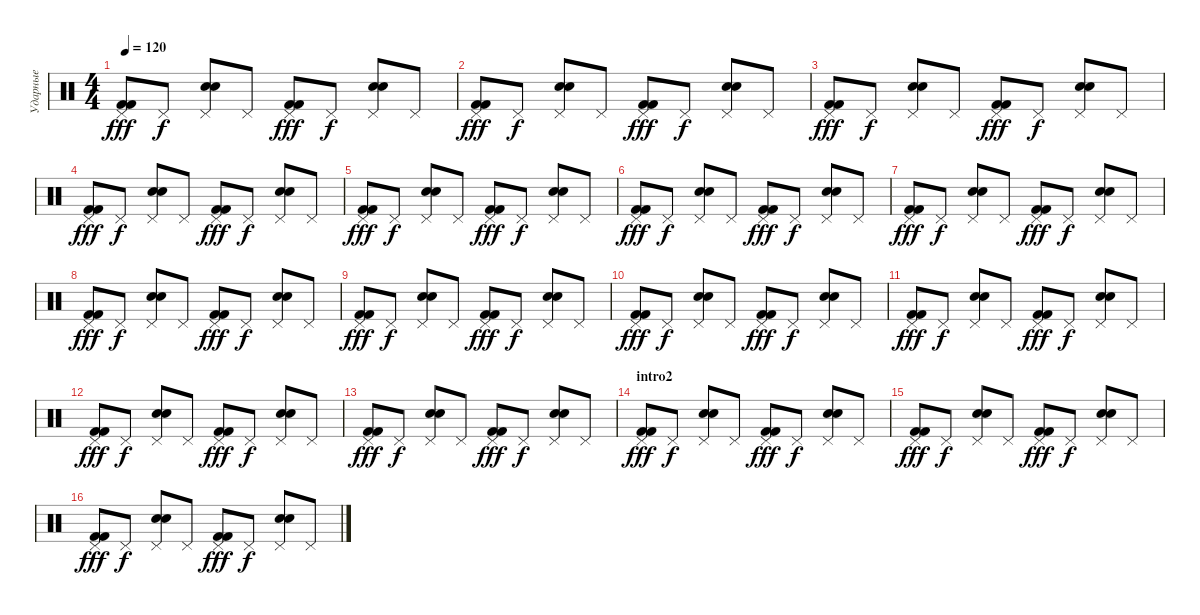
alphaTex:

\track ("Ударные" "Ударные") {instrument percussion}
\staff {score}
\articulation defaults
\ts (4 4)
\tempo 120
\clef neutral
\ks c
("Kick (hit) 2" "Kick (hit) 2" "Pedal Hi-Hat (hit)").8{dy fff} "Pedal Hi-Hat (hit)".8{dy f} ("Electric Snare (hit)" "Electric Snare (hit)" "Pedal Hi-Hat (hit)").8 "Pedal Hi-Hat (hit)".8 ("Kick (hit) 2" "Kick (hit) 2" "Pedal Hi-Hat (hit)").8{dy fff} "Pedal Hi-Hat (hit)".8{dy f} ("Electric Snare (hit)" "Electric Snare (hit)" "Pedal Hi-Hat (hit)").8 "Pedal Hi-Hat (hit)".8 |
("Kick (hit) 2" "Kick (hit) 2" "Pedal Hi-Hat (hit)").8{dy fff} "Pedal Hi-Hat (hit)".8{dy f} ("Electric Snare (hit)" "Electric Snare (hit)" "Pedal Hi-Hat (hit)").8 "Pedal Hi-Hat (hit)".8 ("Kick (hit) 2" "Kick (hit) 2" "Pedal Hi-Hat (hit)").8{dy fff} "Pedal Hi-Hat (hit)".8{dy f} ("Electric Snare (hit)" "Electric Snare (hit)" "Pedal Hi-Hat (hit)").8 "Pedal Hi-Hat (hit)".8 |
("Kick (hit) 2" "Kick (hit) 2" "Pedal Hi-Hat (hit)").8{dy fff} "Pedal Hi-Hat (hit)".8{dy f} ("Electric Snare (hit)" "Electric Snare (hit)" "Pedal Hi-Hat (hit)").8 "Pedal Hi-Hat (hit)".8 ("Kick (hit) 2" "Kick (hit) 2" "Pedal Hi-Hat (hit)").8{dy fff} "Pedal Hi-Hat (hit)".8{dy f} ("Electric Snare (hit)" "Electric Snare (hit)" "Pedal Hi-Hat (hit)").8 "Pedal Hi-Hat (hit)".8 |
("Kick (hit) 2" "Kick (hit) 2" "Pedal Hi-Hat (hit)").8{dy fff} "Pedal Hi-Hat (hit)".8{dy f} ("Electric Snare (hit)" "Electric Snare (hit)" "Pedal Hi-Hat (hit)").8 "Pedal Hi-Hat (hit)".8 ("Kick (hit) 2" "Kick (hit) 2" "Pedal Hi-Hat (hit)").8{dy fff} "Pedal Hi-Hat (hit)".8{dy f} ("Electric Snare (hit)" "Electric Snare (hit)" "Pedal Hi-Hat (hit)").8 "Pedal Hi-Hat (hit)".8 |
("Kick (hit) 2" "Kick (hit) 2" "Pedal Hi-Hat (hit)").8{dy fff} "Pedal Hi-Hat (hit)".8{dy f} ("Electric Snare (hit)" "Electric Snare (hit)" "Pedal Hi-Hat (hit)").8 "Pedal Hi-Hat (hit)".8 ("Kick (hit) 2" "Kick (hit) 2" "Pedal Hi-Hat (hit)").8{dy fff} "Pedal Hi-Hat (hit)".8{dy f} ("Electric Snare (hit)" "Electric Snare (hit)" "Pedal Hi-Hat (hit)").8 "Pedal Hi-Hat (hit)".8 |
("Kick (hit) 2" "Kick (hit) 2" "Pedal Hi-Hat (hit)").8{dy fff} "Pedal Hi-Hat (hit)".8{dy f} ("Electric Snare (hit)" "Electric Snare (hit)" "Pedal Hi-Hat (hit)").8 "Pedal Hi-Hat (hit)".8 ("Kick (hit) 2" "Kick (hit) 2" "Pedal Hi-Hat (hit)").8{dy fff} "Pedal Hi-Hat (hit)".8{dy f} ("Electric Snare (hit)" "Electric Snare (hit)" "Pedal Hi-Hat (hit)").8 "Pedal Hi-Hat (hit)".8 |
("Kick (hit) 2" "Kick (hit) 2" "Pedal Hi-Hat (hit)").8{dy fff} "Pedal Hi-Hat (hit)".8{dy f} ("Electric Snare (hit)" "Electric Snare (hit)" "Pedal Hi-Hat (hit)").8 "Pedal Hi-Hat (hit)".8 ("Kick (hit) 2" "Kick (hit) 2" "Pedal Hi-Hat (hit)").8{dy fff} "Pedal Hi-Hat (hit)".8{dy f} ("Electric Snare (hit)" "Electric Snare (hit)" "Pedal Hi-Hat (hit)").8 "Pedal Hi-Hat (hit)".8 |
("Kick (hit) 2" "Kick (hit) 2" "Pedal Hi-Hat (hit)").8{dy fff} "Pedal Hi-Hat (hit)".8{dy f} ("Electric Snare (hit)" "Electric Snare (hit)" "Pedal Hi-Hat (hit)").8 "Pedal Hi-Hat (hit)".8 ("Kick (hit) 2" "Kick (hit) 2" "Pedal Hi-Hat (hit)").8{dy fff} "Pedal Hi-Hat (hit)".8{dy f} ("Electric Snare (hit)" "Electric Snare (hit)" "Pedal Hi-Hat (hit)").8 "Pedal Hi-Hat (hit)".8 |
("Kick (hit) 2" "Kick (hit) 2" "Pedal Hi-Hat (hit)").8{dy fff} "Pedal Hi-Hat (hit)".8{dy f} ("Electric Snare (hit)" "Electric Snare (hit)" "Pedal Hi-Hat (hit)").8 "Pedal Hi-Hat (hit)".8 ("Kick (hit) 2" "Kick (hit) 2" "Pedal Hi-Hat (hit)").8{dy fff} "Pedal Hi-Hat (hit)".8{dy f} ("Electric Snare (hit)" "Electric Snare (hit)" "Pedal Hi-Hat (hit)").8 "Pedal Hi-Hat (hit)".8 |
("Kick (hit) 2" "Kick (hit) 2" "Pedal Hi-Hat (hit)").8{dy fff} "Pedal Hi-Hat (hit)".8{dy f} ("Electric Snare (hit)" "Electric Snare (hit)" "Pedal Hi-Hat (hit)").8 "Pedal Hi-Hat (hit)".8 ("Kick (hit) 2" "Kick (hit) 2" "Pedal Hi-Hat (hit)").8{dy fff} "Pedal Hi-Hat (hit)".8{dy f} ("Electric Snare (hit)" "Electric Snare (hit)" "Pedal Hi-Hat (hit)").8 "Pedal Hi-Hat (hit)".8 |
("Kick (hit) 2" "Kick (hit) 2" "Pedal Hi-Hat (hit)").8{dy fff} "Pedal Hi-Hat (hit)".8{dy f} ("Electric Snare (hit)" "Electric Snare (hit)" "Pedal Hi-Hat (hit)").8 "Pedal Hi-Hat (hit)".8 ("Kick (hit) 2" "Kick (hit) 2" "Pedal Hi-Hat (hit)").8{dy fff} "Pedal Hi-Hat (hit)".8{dy f} ("Electric Snare (hit)" "Electric Snare (hit)" "Pedal Hi-Hat (hit)").8 "Pedal Hi-Hat (hit)".8 |
("Kick (hit) 2" "Kick (hit) 2" "Pedal Hi-Hat (hit)").8{dy fff} "Pedal Hi-Hat (hit)".8{dy f} ("Electric Snare (hit)" "Electric Snare (hit)" "Pedal Hi-Hat (hit)").8 "Pedal Hi-Hat (hit)".8 ("Kick (hit) 2" "Kick (hit) 2" "Pedal Hi-Hat (hit)").8{dy fff} "Pedal Hi-Hat (hit)".8{dy f} ("Electric Snare (hit)" "Electric Snare (hit)" "Pedal Hi-Hat (hit)").8 "Pedal Hi-Hat (hit)".8 |
("Kick (hit) 2" "Kick (hit) 2" "Pedal Hi-Hat (hit)").8{dy fff} "Pedal Hi-Hat (hit)".8{dy f} ("Electric Snare (hit)" "Electric Snare (hit)" "Pedal Hi-Hat (hit)").8 "Pedal Hi-Hat (hit)".8 ("Kick (hit) 2" "Kick (hit) 2" "Pedal Hi-Hat (hit)").8{dy fff} "Pedal Hi-Hat (hit)".8{dy f} ("Electric Snare (hit)" "Electric Snare (hit)" "Pedal Hi-Hat (hit)").8 "Pedal Hi-Hat (hit)".8 |
\section ("" "intro2")
("Kick (hit) 2" "Kick (hit) 2" "Pedal Hi-Hat (hit)").8{dy fff} "Pedal Hi-Hat (hit)".8{dy f} ("Electric Snare (hit)" "Electric Snare (hit)" "Pedal Hi-Hat (hit)").8 "Pedal Hi-Hat (hit)".8 ("Kick (hit) 2" "Kick (hit) 2" "Pedal Hi-Hat (hit)").8{dy fff} "Pedal Hi-Hat (hit)".8{dy f} ("Electric Snare (hit)" "Electric Snare (hit)" "Pedal Hi-Hat (hit)").8 "Pedal Hi-Hat (hit)".8 |
("Kick (hit) 2" "Kick (hit) 2" "Pedal Hi-Hat (hit)").8{dy fff} "Pedal Hi-Hat (hit)".8{dy f} ("Electric Snare (hit)" "Electric Snare (hit)" "Pedal Hi-Hat (hit)").8 "Pedal Hi-Hat (hit)".8 ("Kick (hit) 2" "Kick (hit) 2" "Pedal Hi-Hat (hit)").8{dy fff} "Pedal Hi-Hat (hit)".8{dy f} ("Electric Snare (hit)" "Electric Snare (hit)" "Pedal Hi-Hat (hit)").8 "Pedal Hi-Hat (hit)".8 |
("Kick (hit) 2" "Kick (hit) 2" "Pedal Hi-Hat (hit)").8{dy fff} "Pedal Hi-Hat (hit)".8{dy f} ("Electric Snare (hit)" "Electric Snare (hit)" "Pedal Hi-Hat (hit)").8 "Pedal Hi-Hat (hit)".8 ("Kick (hit) 2" "Kick (hit) 2" "Pedal Hi-Hat (hit)").8{dy fff} "Pedal Hi-Hat (hit)".8{dy f} ("Electric Snare (hit)" "Electric Snare (hit)" "Pedal Hi-Hat (hit)").8 "Pedal Hi-Hat (hit)".8
